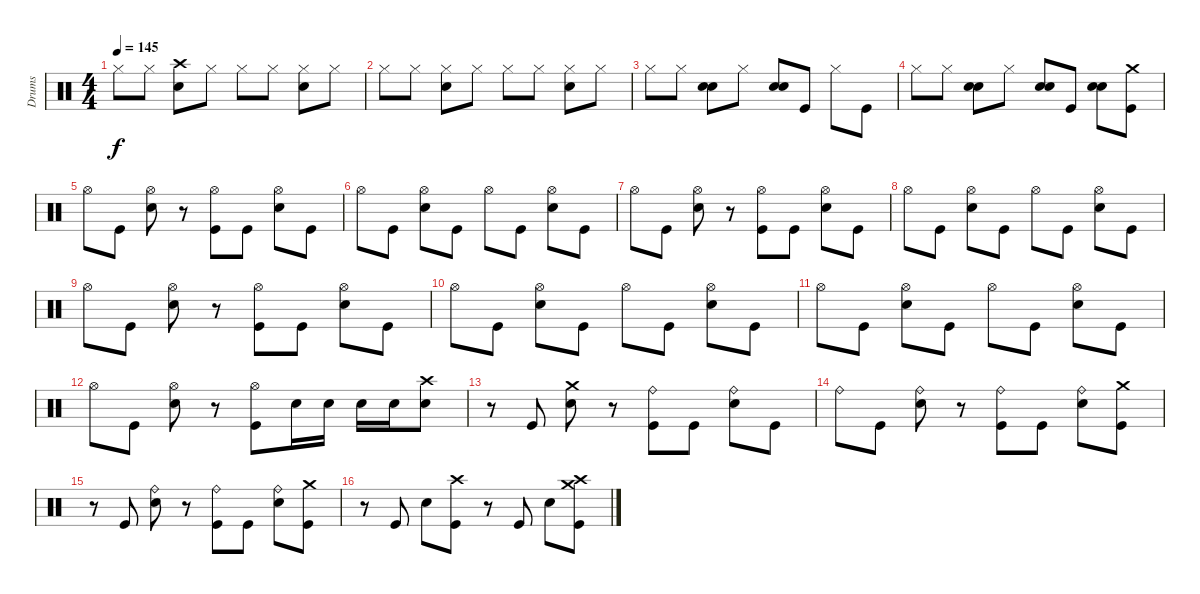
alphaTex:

\track ("Drums" "Drums") {instrument percussion}
\staff {score}
\articulation defaults
\ts (4 4)
\tempo 145
\clef neutral
\ks c "Hi-Hat (closed)".8{dy f} "Hi-Hat (closed)".8
("Crash high (hit)" "Snare (hit) 2").8 "Hi-Hat (closed)".8 "Hi-Hat (closed)".8 "Hi-Hat (closed)".8 ("Hi-Hat (closed)" "Snare (hit) 2").8 "Hi-Hat (closed)".8 |
"Hi-Hat (closed)".8 "Hi-Hat (closed)".8 ("Hi-Hat (closed)" "Snare (hit) 2").8 "Hi-Hat (closed)".8 "Hi-Hat (closed)".8 "Hi-Hat (closed)".8 ("Hi-Hat (closed)" "Snare (hit) 2").8 "Hi-Hat (closed)".8 |
"Hi-Hat (closed)".8 "Hi-Hat (closed)".8 ("Snare (hit) 2" "Snare (hit) 2").8 "Hi-Hat (closed)".8 ("Snare (hit) 2" "Snare (hit) 2").8 "Kick (hit)".8 "Hi-Hat (closed)".8 "Kick (hit)".8 |
"Hi-Hat (closed)".8 "Hi-Hat (closed)".8 ("Snare (hit) 2" "Snare (hit) 2").8 "Hi-Hat (closed)".8 ("Snare (hit) 2" "Snare (hit) 2").8 "Kick (hit)".8 ("Snare (hit) 2" "Snare (hit) 2").8 ("Crash medium (hit)" "Kick (hit)").8 |
"Hi-Hat (open)".8 "Kick (hit)".8 ("Hi-Hat (open)" "Snare (hit) 2").8 r.8 ("Hi-Hat (open)" "Kick (hit)").8 "Kick (hit)".8 ("Hi-Hat (open)" "Snare (hit) 2").8 "Kick (hit)".8 |
"Hi-Hat (open)".8 "Kick (hit)".8 ("Hi-Hat (open)" "Snare (hit) 2").8 "Kick (hit)".8 "Hi-Hat (open)".8 "Kick (hit)".8 ("Hi-Hat (open)" "Snare (hit) 2").8 "Kick (hit)".8 |
"Hi-Hat (open)".8 "Kick (hit)".8 ("Hi-Hat (open)" "Snare (hit) 2").8 r.8 ("Hi-Hat (open)" "Kick (hit)").8 "Kick (hit)".8 ("Hi-Hat (open)" "Snare (hit) 2").8 "Kick (hit)".8 |
"Hi-Hat (open)".8 "Kick (hit)".8 ("Hi-Hat (open)" "Snare (hit) 2").8 "Kick (hit)".8 "Hi-Hat (open)".8 "Kick (hit)".8 ("Hi-Hat (open)" "Snare (hit) 2").8 "Kick (hit)".8 |
"Hi-Hat (open)".8 "Kick (hit)".8 ("Hi-Hat (open)" "Snare (hit) 2").8 r.8 ("Hi-Hat (open)" "Kick (hit)").8 "Kick (hit)".8 ("Hi-Hat (open)" "Snare (hit) 2").8 "Kick (hit)".8 |
"Hi-Hat (open)".8 "Kick (hit)".8 ("Hi-Hat (open)" "Snare (hit) 2").8 "Kick (hit)".8 "Hi-Hat (open)".8 "Kick (hit)".8 ("Hi-Hat (open)" "Snare (hit) 2").8 "Kick (hit)".8 |
"Hi-Hat (open)".8 "Kick (hit)".8 ("Hi-Hat (open)" "Snare (hit) 2").8 "Kick (hit)".8 "Hi-Hat (open)".8 "Kick (hit)".8 ("Hi-Hat (open)" "Snare (hit) 2").8 "Kick (hit)".8 |
"Hi-Hat (open)".8 "Kick (hit)".8 ("Hi-Hat (open)" "Snare (hit) 2").8 r.8 ("Hi-Hat (open)" "Kick (hit)").8 "Snare (hit) 2".16 "Snare (hit) 2".16 "Snare (hit) 2".16 "Snare (hit) 2".16 ("Crash high (hit)" "Snare (hit) 2").8 |
r.8 "Kick (hit)".8 ("Crash medium (hit)" "Snare (hit) 2").8 r.8 ("Ride (bell)" "Kick (hit)").8 "Kick (hit)".8 ("Ride (bell)" "Snare (hit) 2").8 "Kick (hit)".8 |
"Ride (bell)".8 "Kick (hit)".8 ("Ride (bell)" "Snare (hit) 2").8 r.8 ("Ride (bell)" "Kick (hit)").8 "Kick (hit)".8 ("Ride (bell)" "Snare (hit) 2").8 ("Crash medium (hit)" "Kick (hit)").8 |
r.8 "Kick (hit)".8 ("Ride (bell)" "Snare (hit) 2").8 r.8 ("Ride (bell)" "Kick (hit)").8 "Kick (hit)".8 ("Ride (bell)" "Snare (hit) 2").8 ("Crash medium (hit)" "Kick (hit)").8 |
r.8 "Kick (hit)".8 "Snare (hit) 2".8 ("Crash high (hit)" "Kick (hit)").8 r.8 "Kick (hit)".8 "Snare (hit) 2".8 ("Crash high (hit)" "Crash medium (hit)" "Kick (hit)").8
